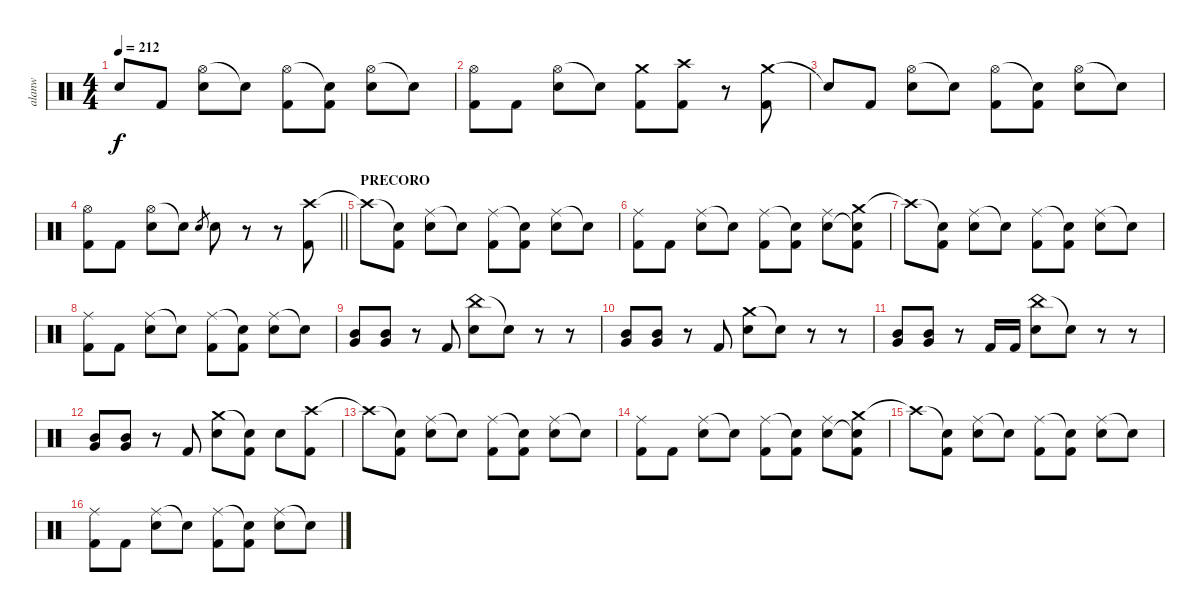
\track ("alanw" "alanw") {instrument percussion}
\staff {score}
\articulation defaults
\ts (4 4)
\tempo 212
\clef neutral
\ks c "Snare (hit)"{t}.8{dy f} "Kick (hit) 2".8
("Hi-Hat (open)" "Electric Snare (hit)").8 "Snare (hit)"{t}.8 ("Hi-Hat (open)" "Kick (hit) 2").8 ("Snare (hit)"{t} "Kick (hit) 2").8 ("Hi-Hat (open)" "Electric Snare (hit)").8 "Snare (hit)"{t}.8 |
("Hi-Hat (open)" "Kick (hit) 2").8 "Kick (hit) 2".8 ("Hi-Hat (open)" "Electric Snare (hit)").8 "Snare (hit)"{t}.8 ("Crash medium (hit)" "Kick (hit) 2").8 ("Crash high (hit)" "Kick (hit) 2").8 r.8 ("Crash medium (hit)" "Kick (hit) 2").8 |
"Snare (hit)"{t}.8 "Kick (hit) 2".8 ("Hi-Hat (open)" "Electric Snare (hit)").8 "Snare (hit)"{t}.8 ("Hi-Hat (open)" "Kick (hit) 2").8 ("Snare (hit)"{t} "Kick (hit) 2").8 ("Hi-Hat (open)" "Electric Snare (hit)").8 "Snare (hit)"{t}.8 |
\barLineRight lightlight
("Hi-Hat (open)" "Kick (hit) 2").8 "Kick (hit) 2".8 ("Hi-Hat (open)" "Electric Snare (hit)").8 "Snare (hit)"{t}.8 "Electric Snare (hit)".8{gr} "Electric Snare (hit)".8 r.8 r.8 ("Crash high (hit)" "Kick (hit) 2").8 |
\section ("" "PRECORO")
"Crash high (hit)"{t}.8 ("Snare (hit)"{t} "Kick (hit) 2").8 ("Ride (middle)" "Electric Snare (hit)").8 "Snare (hit)"{t}.8 ("Ride (middle)" "Kick (hit) 2").8 ("Snare (hit)"{t} "Kick (hit) 2").8 ("Ride (middle)" "Electric Snare (hit)").8 "Snare (hit)"{t}.8 |
("Ride (middle)" "Kick (hit) 2").8 "Kick (hit) 2".8 ("Ride (middle)" "Electric Snare (hit)").8 "Snare (hit)"{t}.8 ("Ride (middle)" "Kick (hit) 2").8 ("Snare (hit)"{t} "Kick (hit) 2").8 ("Ride (middle)" "Electric Snare (hit)").8 ("Crash medium (hit)" "Snare (hit)"{t} "Kick (hit) 2").8 |
"Crash high (hit)"{t}.8 ("Snare (hit)"{t} "Kick (hit) 2").8 ("Ride (middle)" "Electric Snare (hit)").8 "Snare (hit)"{t}.8 ("Ride (middle)" "Kick (hit) 2").8 ("Snare (hit)"{t} "Kick (hit) 2").8 ("Ride (middle)" "Electric Snare (hit)").8 "Snare (hit)"{t}.8 |
("Ride (middle)" "Kick (hit) 2").8 "Kick (hit) 2".8 ("Ride (middle)" "Electric Snare (hit)").8 "Snare (hit)"{t}.8 ("Ride (middle)" "Kick (hit) 2").8 ("Snare (hit)"{t} "Kick (hit) 2").8 ("Ride (middle)" "Electric Snare (hit)").8 "Snare (hit)"{t}.8 |
("Mid Tom (hit)" "Very Low Tom (hit)").8 ("Mid Tom (hit)" "Very Low Tom (hit)").8 r.8 "Kick (hit) 2".8 ("China (hit)" "Electric Snare (hit)").8 "Snare (hit)"{t}.8 r.8 r.8 |
("Mid Tom (hit)" "Very Low Tom (hit)").8 ("Mid Tom (hit)" "Very Low Tom (hit)").8 r.8 "Kick (hit) 2".8 ("Crash medium (hit)" "Electric Snare (hit)").8 "Snare (hit)"{t}.8 r.8 r.8 |
("Mid Tom (hit)" "Very Low Tom (hit)").8 ("Mid Tom (hit)" "Very Low Tom (hit)").8 r.8 "Kick (hit) 2".16 "Kick (hit) 2".16 ("China (hit)" "Electric Snare (hit)").8 "Snare (hit)"{t}.8 r.8 r.8 |
("Mid Tom (hit)" "Very Low Tom (hit)").8 ("Mid Tom (hit)" "Very Low Tom (hit)").8 r.8 "Kick (hit) 2".8 ("Crash medium (hit)" "Electric Snare (hit)").8 ("Snare (hit)"{t} "Kick (hit) 2").8 "Electric Snare (hit)".8 ("Crash high (hit)" "Kick (hit) 2").8 |
"Crash high (hit)"{t}.8 ("Snare (hit)"{t} "Kick (hit) 2").8 ("Ride (middle)" "Electric Snare (hit)").8 "Snare (hit)"{t}.8 ("Ride (middle)" "Kick (hit) 2").8 ("Snare (hit)"{t} "Kick (hit) 2").8 ("Ride (middle)" "Electric Snare (hit)").8 "Snare (hit)"{t}.8 |
("Ride (middle)" "Kick (hit) 2").8 "Kick (hit) 2".8 ("Ride (middle)" "Electric Snare (hit)").8 "Snare (hit)"{t}.8 ("Ride (middle)" "Kick (hit) 2").8 ("Snare (hit)"{t} "Kick (hit) 2").8 ("Ride (middle)" "Electric Snare (hit)").8 ("Crash medium (hit)" "Snare (hit)"{t} "Kick (hit) 2").8 |
"Crash high (hit)"{t}.8 ("Snare (hit)"{t} "Kick (hit) 2").8 ("Ride (middle)" "Electric Snare (hit)").8 "Snare (hit)"{t}.8 ("Ride (middle)" "Kick (hit) 2").8 ("Snare (hit)"{t} "Kick (hit) 2").8 ("Ride (middle)" "Electric Snare (hit)").8 "Snare (hit)"{t}.8 |
("Ride (middle)" "Kick (hit) 2").8 "Kick (hit) 2".8 ("Ride (middle)" "Electric Snare (hit)").8 "Snare (hit)"{t}.8 ("Ride (middle)" "Kick (hit) 2").8 ("Snare (hit)"{t} "Kick (hit) 2").8 ("Ride (middle)" "Electric Snare (hit)").8 "Snare (hit)"{t}.8
